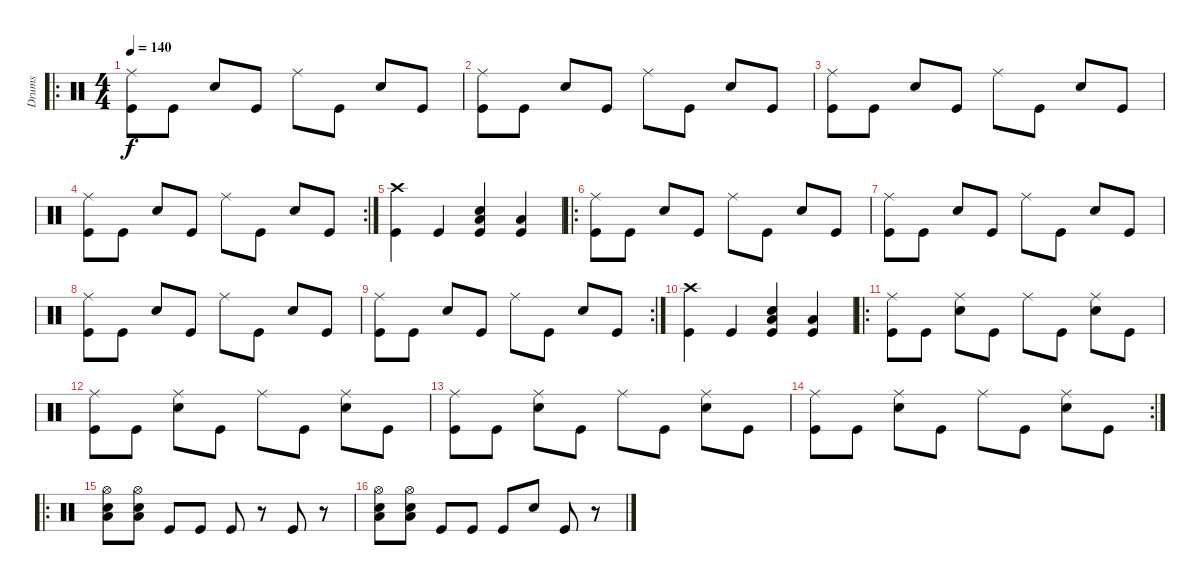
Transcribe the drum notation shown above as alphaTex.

\track ("Drums" "Drums") {instrument percussion}
\staff {score}
\articulation defaults
\ro
\ts (4 4)
\tempo 140
\clef neutral
\ks c
("Ride (middle)" "Kick (hit)").8{dy f} "Kick (hit)".8 "Snare (hit) 2".8 "Kick (hit)".8 "Ride (middle)".8 "Kick (hit)".8 "Snare (hit) 2".8 "Kick (hit)".8 |
("Ride (middle)" "Kick (hit)").8 "Kick (hit)".8 "Snare (hit) 2".8 "Kick (hit)".8 "Ride (middle)".8 "Kick (hit)".8 "Snare (hit) 2".8 "Kick (hit)".8 |
("Ride (middle)" "Kick (hit)").8 "Kick (hit)".8 "Snare (hit) 2".8 "Kick (hit)".8 "Ride (middle)".8 "Kick (hit)".8 "Snare (hit) 2".8 "Kick (hit)".8 |
\rc 2
("Ride (middle)" "Kick (hit)").8 "Kick (hit)".8 "Snare (hit) 2".8 "Kick (hit)".8 "Ride (middle)".8 "Kick (hit)".8 "Snare (hit) 2".8 "Kick (hit)".8 |
("Crash high (hit)" "Kick (hit)").4 "Kick (hit)".4 ("Snare (hit) 2" "Low Floor Tom (hit)" "Kick (hit)").4 ("Low Floor Tom (hit)" "Kick (hit)").4 |
\ro
("Ride (middle)" "Kick (hit)").8 "Kick (hit)".8 "Snare (hit) 2".8 "Kick (hit)".8 "Ride (middle)".8 "Kick (hit)".8 "Snare (hit) 2".8 "Kick (hit)".8 |
("Ride (middle)" "Kick (hit)").8 "Kick (hit)".8 "Snare (hit) 2".8 "Kick (hit)".8 "Ride (middle)".8 "Kick (hit)".8 "Snare (hit) 2".8 "Kick (hit)".8 |
("Ride (middle)" "Kick (hit)").8 "Kick (hit)".8 "Snare (hit) 2".8 "Kick (hit)".8 "Ride (middle)".8 "Kick (hit)".8 "Snare (hit) 2".8 "Kick (hit)".8 |
\rc 2
("Ride (middle)" "Kick (hit)").8 "Kick (hit)".8 "Snare (hit) 2".8 "Kick (hit)".8 "Ride (middle)".8 "Kick (hit)".8 "Snare (hit) 2".8 "Kick (hit)".8 |
("Crash high (hit)" "Kick (hit)").4 "Kick (hit)".4 ("Snare (hit) 2" "Low Floor Tom (hit)" "Kick (hit)").4 ("Low Floor Tom (hit)" "Kick (hit)").4 |
\ro
("Ride (middle)" "Kick (hit)").8 "Kick (hit)".8 ("Ride (middle)" "Snare (hit) 2").8 "Kick (hit)".8 "Ride (middle)".8 "Kick (hit)".8 ("Ride (middle)" "Snare (hit) 2").8 "Kick (hit)".8 |
("Ride (middle)" "Kick (hit)").8 "Kick (hit)".8 ("Ride (middle)" "Snare (hit) 2").8 "Kick (hit)".8 "Ride (middle)".8 "Kick (hit)".8 ("Ride (middle)" "Snare (hit) 2").8 "Kick (hit)".8 |
("Ride (middle)" "Kick (hit)").8 "Kick (hit)".8 ("Ride (middle)" "Snare (hit) 2").8 "Kick (hit)".8 "Ride (middle)".8 "Kick (hit)".8 ("Ride (middle)" "Snare (hit) 2").8 "Kick (hit)".8 |
\rc 2
("Ride (middle)" "Kick (hit)").8 "Kick (hit)".8 ("Ride (middle)" "Snare (hit) 2").8 "Kick (hit)".8 "Ride (middle)".8 "Kick (hit)".8 ("Ride (middle)" "Snare (hit) 2").8 "Kick (hit)".8 |
\ro
("Hi-Hat (open)" "Snare (hit) 2" "Low Floor Tom (hit)").8 ("Hi-Hat (open)" "Snare (hit) 2" "Low Floor Tom (hit)").8 "Kick (hit)".8 "Kick (hit)".8 "Kick (hit)".8 r.8 "Kick (hit)".8 r.8 |
("Hi-Hat (open)" "Snare (hit) 2" "Low Floor Tom (hit)").8 ("Hi-Hat (open)" "Snare (hit) 2" "Low Floor Tom (hit)").8 "Kick (hit)".8 "Kick (hit)".8 "Kick (hit)".8 "Snare (hit) 2".8 "Kick (hit)".8 r.8
